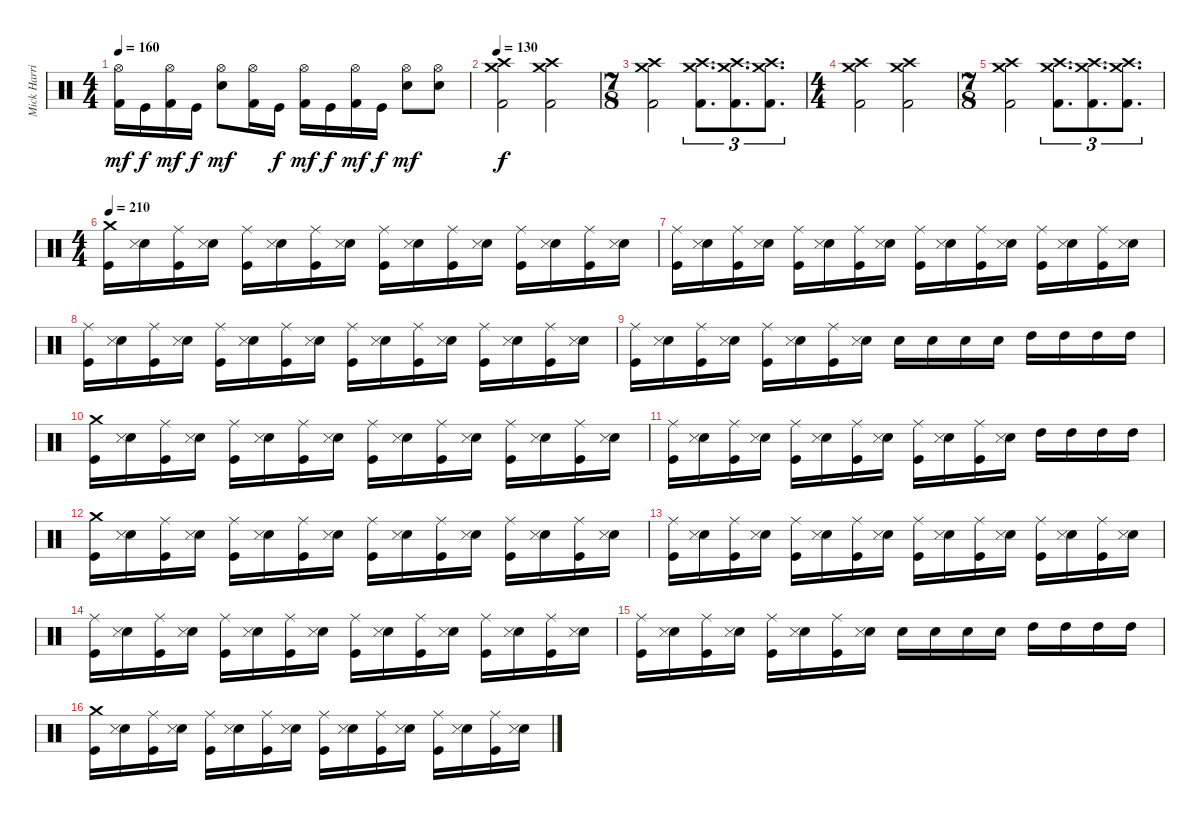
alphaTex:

\track ("Mick Harris (Drums)" "Mick Harri") {instrument percussion}
\staff {score}
\articulation defaults
\ts (4 4)
\tempo 160
\clef neutral
\ks c
("Kick (hit) 2" "Hi-Hat (open)").16{dy mf} "Kick (hit)".16{dy f} ("Kick (hit) 2" "Hi-Hat (open)").16{dy mf} "Kick (hit)".16{dy f} ("Electric Snare (hit)" "Hi-Hat (open)").8{dy mf} ("Kick (hit) 2" "Hi-Hat (open)").16 "Kick (hit)".16{dy f} ("Kick (hit) 2" "Hi-Hat (open)").16{dy mf} "Kick (hit)".16{dy f} ("Kick (hit) 2" "Hi-Hat (open)").16{dy mf} "Kick (hit)".16{dy f} ("Electric Snare (hit)" "Hi-Hat (open)").8{dy mf} ("Electric Snare (hit)" "Hi-Hat (open)").8 |
\tempo 130
("Kick (hit) 2" "Crash medium (hit)" "Crash high (hit)").2{dy f} ("Kick (hit) 2" "Crash medium (hit)" "Crash high (hit)").2 |
\ts (7 8)
("Kick (hit) 2" "Crash medium (hit)" "Crash high (hit)").2 ("Kick (hit) 2" "Crash medium (hit)" "Crash high (hit)").8{d tu (3 2)} ("Kick (hit) 2" "Crash medium (hit)" "Crash high (hit)").8{d tu (3 2)} ("Kick (hit) 2" "Crash medium (hit)" "Crash high (hit)").8{d tu (3 2)} |
\ts (4 4)
("Kick (hit) 2" "Crash medium (hit)" "Crash high (hit)").2 ("Kick (hit) 2" "Crash medium (hit)" "Crash high (hit)").2 |
\ts (7 8)
("Kick (hit) 2" "Crash medium (hit)" "Crash high (hit)").2 ("Kick (hit) 2" "Crash medium (hit)" "Crash high (hit)").8{d tu (3 2)} ("Kick (hit) 2" "Crash medium (hit)" "Crash high (hit)").8{d tu (3 2)} ("Kick (hit) 2" "Crash medium (hit)" "Crash high (hit)").8{d tu (3 2)} |
\ts (4 4)
\tempo 210
("Kick (hit)" "Crash medium (hit)").16 ("Electric Snare (hit)" "Snare (side stick) 3").16 ("Kick (hit)" "Ride (middle)").16 ("Electric Snare (hit)" "Snare (side stick) 3").16 ("Kick (hit)" "Ride (middle)").16 ("Electric Snare (hit)" "Snare (side stick) 3").16 ("Kick (hit)" "Ride (middle)").16 ("Electric Snare (hit)" "Snare (side stick) 3").16 ("Kick (hit)" "Ride (middle)").16 ("Electric Snare (hit)" "Snare (side stick) 3").16 ("Kick (hit)" "Ride (middle)").16 ("Electric Snare (hit)" "Snare (side stick) 3").16 ("Kick (hit)" "Ride (middle)").16 ("Electric Snare (hit)" "Snare (side stick) 3").16 ("Kick (hit)" "Ride (middle)").16 ("Electric Snare (hit)" "Snare (side stick) 3").16 |
("Kick (hit)" "Ride (middle)").16 ("Electric Snare (hit)" "Snare (side stick) 3").16 ("Kick (hit)" "Ride (middle)").16 ("Electric Snare (hit)" "Snare (side stick) 3").16 ("Kick (hit)" "Ride (middle)").16 ("Electric Snare (hit)" "Snare (side stick) 3").16 ("Kick (hit)" "Ride (middle)").16 ("Electric Snare (hit)" "Snare (side stick) 3").16 ("Kick (hit)" "Ride (middle)").16 ("Electric Snare (hit)" "Snare (side stick) 3").16 ("Kick (hit)" "Ride (middle)").16 ("Electric Snare (hit)" "Snare (side stick) 3").16 ("Kick (hit)" "Ride (middle)").16 ("Electric Snare (hit)" "Snare (side stick) 3").16 ("Kick (hit)" "Ride (middle)").16 ("Electric Snare (hit)" "Snare (side stick) 3").16 |
("Kick (hit)" "Ride (middle)").16 ("Electric Snare (hit)" "Snare (side stick) 3").16 ("Kick (hit)" "Ride (middle)").16 ("Electric Snare (hit)" "Snare (side stick) 3").16 ("Kick (hit)" "Ride (middle)").16 ("Electric Snare (hit)" "Snare (side stick) 3").16 ("Kick (hit)" "Ride (middle)").16 ("Electric Snare (hit)" "Snare (side stick) 3").16 ("Kick (hit)" "Ride (middle)").16 ("Electric Snare (hit)" "Snare (side stick) 3").16 ("Kick (hit)" "Ride (middle)").16 ("Electric Snare (hit)" "Snare (side stick) 3").16 ("Kick (hit)" "Ride (middle)").16 ("Electric Snare (hit)" "Snare (side stick) 3").16 ("Kick (hit)" "Ride (middle)").16 ("Electric Snare (hit)" "Snare (side stick) 3").16 |
("Kick (hit)" "Ride (middle)").16 ("Electric Snare (hit)" "Snare (side stick) 3").16 ("Kick (hit)" "Ride (middle)").16 ("Electric Snare (hit)" "Snare (side stick) 3").16 ("Kick (hit)" "Ride (middle)").16 ("Electric Snare (hit)" "Snare (side stick) 3").16 ("Kick (hit)" "Ride (middle)").16 ("Electric Snare (hit)" "Snare (side stick) 3").16 "Electric Snare (hit)".16 "Electric Snare (hit)".16 "Electric Snare (hit)".16 "Electric Snare (hit)".16 "High Tom (hit)".16 "High Tom (hit)".16 "High Tom (hit)".16 "High Tom (hit)".16 |
("Kick (hit)" "Crash medium (hit)").16 ("Electric Snare (hit)" "Snare (side stick) 3").16 ("Kick (hit)" "Ride (middle)").16 ("Electric Snare (hit)" "Snare (side stick) 3").16 ("Kick (hit)" "Ride (middle)").16 ("Electric Snare (hit)" "Snare (side stick) 3").16 ("Kick (hit)" "Ride (middle)").16 ("Electric Snare (hit)" "Snare (side stick) 3").16 ("Kick (hit)" "Ride (middle)").16 ("Electric Snare (hit)" "Snare (side stick) 3").16 ("Kick (hit)" "Ride (middle)").16 ("Electric Snare (hit)" "Snare (side stick) 3").16 ("Kick (hit)" "Ride (middle)").16 ("Electric Snare (hit)" "Snare (side stick) 3").16 ("Kick (hit)" "Ride (middle)").16 ("Electric Snare (hit)" "Snare (side stick) 3").16 |
("Kick (hit)" "Ride (middle)").16 ("Electric Snare (hit)" "Snare (side stick) 3").16 ("Kick (hit)" "Ride (middle)").16 ("Electric Snare (hit)" "Snare (side stick) 3").16 ("Kick (hit)" "Ride (middle)").16 ("Electric Snare (hit)" "Snare (side stick) 3").16 ("Kick (hit)" "Ride (middle)").16 ("Electric Snare (hit)" "Snare (side stick) 3").16 ("Kick (hit)" "Ride (middle)").16 ("Electric Snare (hit)" "Snare (side stick) 3").16 ("Kick (hit)" "Ride (middle)").16 ("Electric Snare (hit)" "Snare (side stick) 3").16 "High Tom (hit)".16 "High Tom (hit)".16 "High Tom (hit)".16 "High Tom (hit)".16 |
("Kick (hit)" "Crash medium (hit)").16 ("Electric Snare (hit)" "Snare (side stick) 3").16 ("Kick (hit)" "Ride (middle)").16 ("Electric Snare (hit)" "Snare (side stick) 3").16 ("Kick (hit)" "Ride (middle)").16 ("Electric Snare (hit)" "Snare (side stick) 3").16 ("Kick (hit)" "Ride (middle)").16 ("Electric Snare (hit)" "Snare (side stick) 3").16 ("Kick (hit)" "Ride (middle)").16 ("Electric Snare (hit)" "Snare (side stick) 3").16 ("Kick (hit)" "Ride (middle)").16 ("Electric Snare (hit)" "Snare (side stick) 3").16 ("Kick (hit)" "Ride (middle)").16 ("Electric Snare (hit)" "Snare (side stick) 3").16 ("Kick (hit)" "Ride (middle)").16 ("Electric Snare (hit)" "Snare (side stick) 3").16 |
("Kick (hit)" "Ride (middle)").16 ("Electric Snare (hit)" "Snare (side stick) 3").16 ("Kick (hit)" "Ride (middle)").16 ("Electric Snare (hit)" "Snare (side stick) 3").16 ("Kick (hit)" "Ride (middle)").16 ("Electric Snare (hit)" "Snare (side stick) 3").16 ("Kick (hit)" "Ride (middle)").16 ("Electric Snare (hit)" "Snare (side stick) 3").16 ("Kick (hit)" "Ride (middle)").16 ("Electric Snare (hit)" "Snare (side stick) 3").16 ("Kick (hit)" "Ride (middle)").16 ("Electric Snare (hit)" "Snare (side stick) 3").16 ("Kick (hit)" "Ride (middle)").16 ("Electric Snare (hit)" "Snare (side stick) 3").16 ("Kick (hit)" "Ride (middle)").16 ("Electric Snare (hit)" "Snare (side stick) 3").16 |
("Kick (hit)" "Ride (middle)").16 ("Electric Snare (hit)" "Snare (side stick) 3").16 ("Kick (hit)" "Ride (middle)").16 ("Electric Snare (hit)" "Snare (side stick) 3").16 ("Kick (hit)" "Ride (middle)").16 ("Electric Snare (hit)" "Snare (side stick) 3").16 ("Kick (hit)" "Ride (middle)").16 ("Electric Snare (hit)" "Snare (side stick) 3").16 ("Kick (hit)" "Ride (middle)").16 ("Electric Snare (hit)" "Snare (side stick) 3").16 ("Kick (hit)" "Ride (middle)").16 ("Electric Snare (hit)" "Snare (side stick) 3").16 ("Kick (hit)" "Ride (middle)").16 ("Electric Snare (hit)" "Snare (side stick) 3").16 ("Kick (hit)" "Ride (middle)").16 ("Electric Snare (hit)" "Snare (side stick) 3").16 |
("Kick (hit)" "Ride (middle)").16 ("Electric Snare (hit)" "Snare (side stick) 3").16 ("Kick (hit)" "Ride (middle)").16 ("Electric Snare (hit)" "Snare (side stick) 3").16 ("Kick (hit)" "Ride (middle)").16 ("Electric Snare (hit)" "Snare (side stick) 3").16 ("Kick (hit)" "Ride (middle)").16 ("Electric Snare (hit)" "Snare (side stick) 3").16 "Electric Snare (hit)".16 "Electric Snare (hit)".16 "Electric Snare (hit)".16 "Electric Snare (hit)".16 "High Tom (hit)".16 "High Tom (hit)".16 "High Tom (hit)".16 "High Tom (hit)".16 |
("Kick (hit)" "Crash medium (hit)").16 ("Electric Snare (hit)" "Snare (side stick) 3").16 ("Kick (hit)" "Ride (middle)").16 ("Electric Snare (hit)" "Snare (side stick) 3").16 ("Kick (hit)" "Ride (middle)").16 ("Electric Snare (hit)" "Snare (side stick) 3").16 ("Kick (hit)" "Ride (middle)").16 ("Electric Snare (hit)" "Snare (side stick) 3").16 ("Kick (hit)" "Ride (middle)").16 ("Electric Snare (hit)" "Snare (side stick) 3").16 ("Kick (hit)" "Ride (middle)").16 ("Electric Snare (hit)" "Snare (side stick) 3").16 ("Kick (hit)" "Ride (middle)").16 ("Electric Snare (hit)" "Snare (side stick) 3").16 ("Kick (hit)" "Ride (middle)").16 ("Electric Snare (hit)" "Snare (side stick) 3").16
